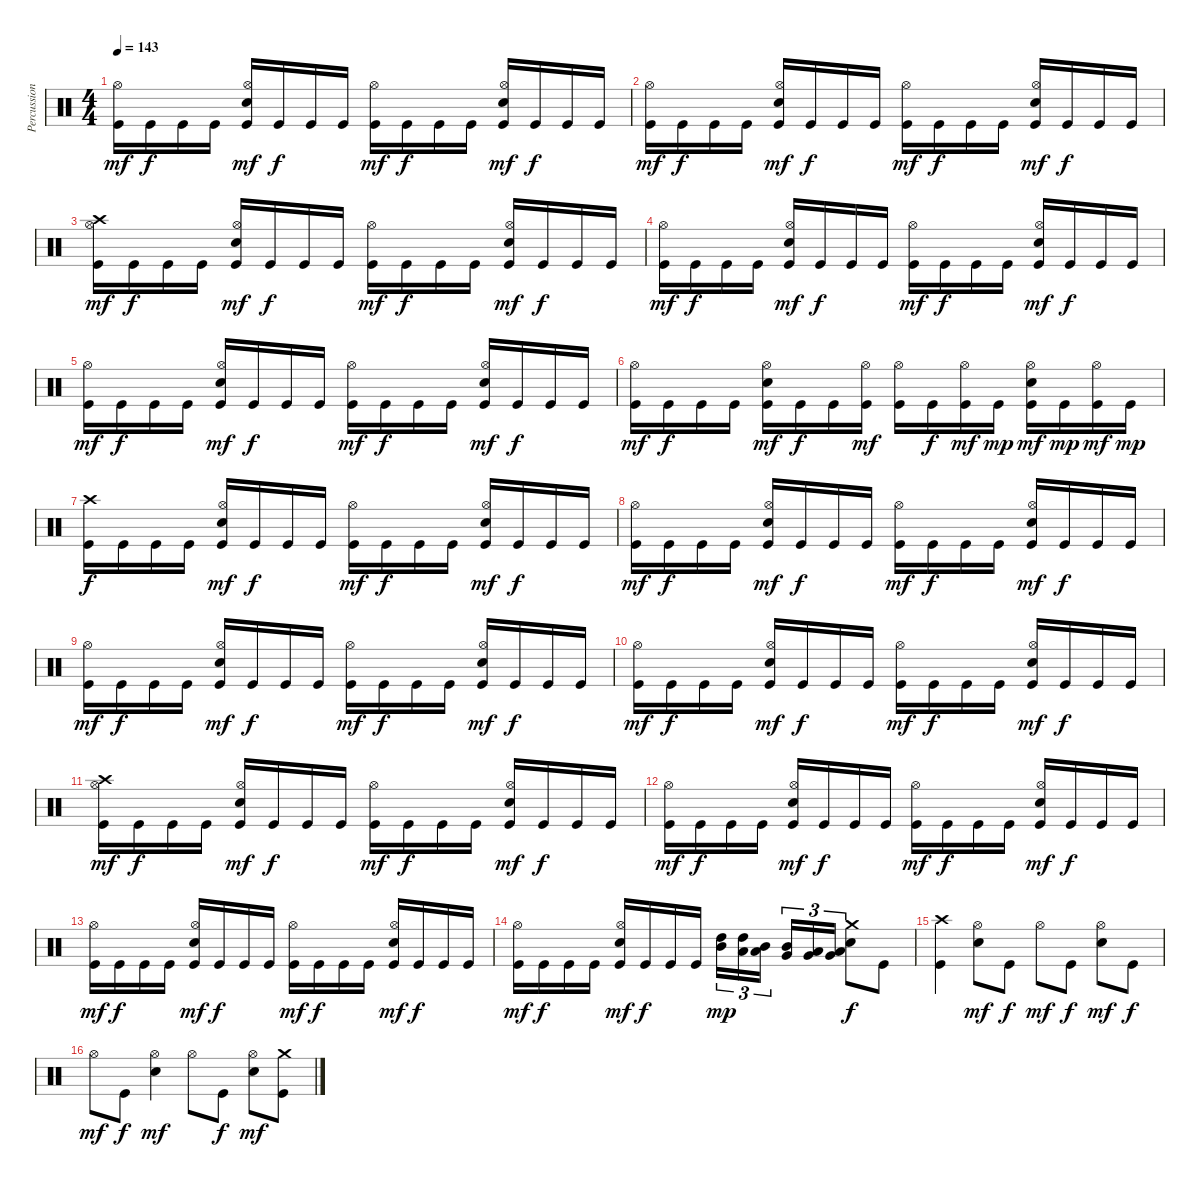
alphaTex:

\track ("Percussions" "Percussion") {instrument percussion}
\staff {score}
\articulation defaults
\ts (4 4)
\tempo 143
\clef neutral
\ks c
("Kick (hit)" "Hi-Hat (open)").16{dy mf} "Kick (hit)".16{dy f} "Kick (hit)".16 "Kick (hit)".16 ("Kick (hit)" "Electric Snare (hit)" "Hi-Hat (open)").16{dy mf} "Kick (hit)".16{dy f} "Kick (hit)".16 "Kick (hit)".16 ("Kick (hit)" "Hi-Hat (open)").16{dy mf} "Kick (hit)".16{dy f} "Kick (hit)".16 "Kick (hit)".16 ("Kick (hit)" "Electric Snare (hit)" "Hi-Hat (open)").16{dy mf} "Kick (hit)".16{dy f} "Kick (hit)".16 "Kick (hit)".16 |
("Kick (hit)" "Hi-Hat (open)").16{dy mf} "Kick (hit)".16{dy f} "Kick (hit)".16 "Kick (hit)".16 ("Kick (hit)" "Electric Snare (hit)" "Hi-Hat (open)").16{dy mf} "Kick (hit)".16{dy f} "Kick (hit)".16 "Kick (hit)".16 ("Kick (hit)" "Hi-Hat (open)").16{dy mf} "Kick (hit)".16{dy f} "Kick (hit)".16 "Kick (hit)".16 ("Kick (hit)" "Electric Snare (hit)" "Hi-Hat (open)").16{dy mf} "Kick (hit)".16{dy f} "Kick (hit)".16 "Kick (hit)".16 |
("Kick (hit)" "Hi-Hat (open)" "Crash high (hit)").16{dy mf} "Kick (hit)".16{dy f} "Kick (hit)".16 "Kick (hit)".16 ("Kick (hit)" "Electric Snare (hit)" "Hi-Hat (open)").16{dy mf} "Kick (hit)".16{dy f} "Kick (hit)".16 "Kick (hit)".16 ("Kick (hit)" "Hi-Hat (open)").16{dy mf} "Kick (hit)".16{dy f} "Kick (hit)".16 "Kick (hit)".16 ("Kick (hit)" "Electric Snare (hit)" "Hi-Hat (open)").16{dy mf} "Kick (hit)".16{dy f} "Kick (hit)".16 "Kick (hit)".16 |
("Kick (hit)" "Hi-Hat (open)").16{dy mf} "Kick (hit)".16{dy f} "Kick (hit)".16 "Kick (hit)".16 ("Kick (hit)" "Electric Snare (hit)" "Hi-Hat (open)").16{dy mf} "Kick (hit)".16{dy f} "Kick (hit)".16 "Kick (hit)".16 ("Kick (hit)" "Hi-Hat (open)").16{dy mf} "Kick (hit)".16{dy f} "Kick (hit)".16 "Kick (hit)".16 ("Kick (hit)" "Electric Snare (hit)" "Hi-Hat (open)").16{dy mf} "Kick (hit)".16{dy f} "Kick (hit)".16 "Kick (hit)".16 |
("Kick (hit)" "Hi-Hat (open)").16{dy mf} "Kick (hit)".16{dy f} "Kick (hit)".16 "Kick (hit)".16 ("Kick (hit)" "Electric Snare (hit)" "Hi-Hat (open)").16{dy mf} "Kick (hit)".16{dy f} "Kick (hit)".16 "Kick (hit)".16 ("Kick (hit)" "Hi-Hat (open)").16{dy mf} "Kick (hit)".16{dy f} "Kick (hit)".16 "Kick (hit)".16 ("Kick (hit)" "Electric Snare (hit)" "Hi-Hat (open)").16{dy mf} "Kick (hit)".16{dy f} "Kick (hit)".16 "Kick (hit)".16 |
("Kick (hit)" "Hi-Hat (open)").16{dy mf} "Kick (hit)".16{dy f} "Kick (hit)".16 "Kick (hit)".16 ("Kick (hit)" "Electric Snare (hit)" "Hi-Hat (open)").16{dy mf} "Kick (hit)".16{dy f} "Kick (hit)".16 ("Kick (hit)" "Hi-Hat (open)").16{dy mf} ("Kick (hit)" "Hi-Hat (open)").16 "Kick (hit)".16{dy f} ("Kick (hit)" "Hi-Hat (open)").16{dy mf} "Kick (hit)".16{dy mp} ("Kick (hit)" "Electric Snare (hit)" "Hi-Hat (open)").16{dy mf} "Kick (hit)".16{dy mp} ("Kick (hit)" "Hi-Hat (open)").16{dy mf} "Kick (hit)".16{dy mp} |
("Kick (hit)" "Crash high (hit)").16{dy f} "Kick (hit)".16 "Kick (hit)".16 "Kick (hit)".16 ("Kick (hit)" "Electric Snare (hit)" "Hi-Hat (open)").16{dy mf} "Kick (hit)".16{dy f} "Kick (hit)".16 "Kick (hit)".16 ("Kick (hit)" "Hi-Hat (open)").16{dy mf} "Kick (hit)".16{dy f} "Kick (hit)".16 "Kick (hit)".16 ("Kick (hit)" "Electric Snare (hit)" "Hi-Hat (open)").16{dy mf} "Kick (hit)".16{dy f} "Kick (hit)".16 "Kick (hit)".16 |
("Kick (hit)" "Hi-Hat (open)").16{dy mf} "Kick (hit)".16{dy f} "Kick (hit)".16 "Kick (hit)".16 ("Kick (hit)" "Electric Snare (hit)" "Hi-Hat (open)").16{dy mf} "Kick (hit)".16{dy f} "Kick (hit)".16 "Kick (hit)".16 ("Kick (hit)" "Hi-Hat (open)").16{dy mf} "Kick (hit)".16{dy f} "Kick (hit)".16 "Kick (hit)".16 ("Kick (hit)" "Electric Snare (hit)" "Hi-Hat (open)").16{dy mf} "Kick (hit)".16{dy f} "Kick (hit)".16 "Kick (hit)".16 |
("Kick (hit)" "Hi-Hat (open)").16{dy mf} "Kick (hit)".16{dy f} "Kick (hit)".16 "Kick (hit)".16 ("Kick (hit)" "Electric Snare (hit)" "Hi-Hat (open)").16{dy mf} "Kick (hit)".16{dy f} "Kick (hit)".16 "Kick (hit)".16 ("Kick (hit)" "Hi-Hat (open)").16{dy mf} "Kick (hit)".16{dy f} "Kick (hit)".16 "Kick (hit)".16 ("Kick (hit)" "Electric Snare (hit)" "Hi-Hat (open)").16{dy mf} "Kick (hit)".16{dy f} "Kick (hit)".16 "Kick (hit)".16 |
("Kick (hit)" "Hi-Hat (open)").16{dy mf} "Kick (hit)".16{dy f} "Kick (hit)".16 "Kick (hit)".16 ("Kick (hit)" "Electric Snare (hit)" "Hi-Hat (open)").16{dy mf} "Kick (hit)".16{dy f} "Kick (hit)".16 "Kick (hit)".16 ("Kick (hit)" "Hi-Hat (open)").16{dy mf} "Kick (hit)".16{dy f} "Kick (hit)".16 "Kick (hit)".16 ("Kick (hit)" "Electric Snare (hit)" "Hi-Hat (open)").16{dy mf} "Kick (hit)".16{dy f} "Kick (hit)".16 "Kick (hit)".16 |
("Kick (hit)" "Hi-Hat (open)" "Crash high (hit)").16{dy mf} "Kick (hit)".16{dy f} "Kick (hit)".16 "Kick (hit)".16 ("Kick (hit)" "Electric Snare (hit)" "Hi-Hat (open)").16{dy mf} "Kick (hit)".16{dy f} "Kick (hit)".16 "Kick (hit)".16 ("Kick (hit)" "Hi-Hat (open)").16{dy mf} "Kick (hit)".16{dy f} "Kick (hit)".16 "Kick (hit)".16 ("Kick (hit)" "Electric Snare (hit)" "Hi-Hat (open)").16{dy mf} "Kick (hit)".16{dy f} "Kick (hit)".16 "Kick (hit)".16 |
("Kick (hit)" "Hi-Hat (open)").16{dy mf} "Kick (hit)".16{dy f} "Kick (hit)".16 "Kick (hit)".16 ("Kick (hit)" "Electric Snare (hit)" "Hi-Hat (open)").16{dy mf} "Kick (hit)".16{dy f} "Kick (hit)".16 "Kick (hit)".16 ("Kick (hit)" "Hi-Hat (open)").16{dy mf} "Kick (hit)".16{dy f} "Kick (hit)".16 "Kick (hit)".16 ("Kick (hit)" "Electric Snare (hit)" "Hi-Hat (open)").16{dy mf} "Kick (hit)".16{dy f} "Kick (hit)".16 "Kick (hit)".16 |
("Kick (hit)" "Hi-Hat (open)").16{dy mf} "Kick (hit)".16{dy f} "Kick (hit)".16 "Kick (hit)".16 ("Kick (hit)" "Electric Snare (hit)" "Hi-Hat (open)").16{dy mf} "Kick (hit)".16{dy f} "Kick (hit)".16 "Kick (hit)".16 ("Kick (hit)" "Hi-Hat (open)").16{dy mf} "Kick (hit)".16{dy f} "Kick (hit)".16 "Kick (hit)".16 ("Kick (hit)" "Electric Snare (hit)" "Hi-Hat (open)").16{dy mf} "Kick (hit)".16{dy f} "Kick (hit)".16 "Kick (hit)".16 |
("Kick (hit)" "Hi-Hat (open)").16{dy mf} "Kick (hit)".16{dy f} "Kick (hit)".16 "Kick (hit)".16 ("Kick (hit)" "Electric Snare (hit)" "Hi-Hat (open)").16{dy mf} "Kick (hit)".16{dy f} "Kick (hit)".16 "Kick (hit)".16 ("Mid Tom (hit)" "High Tom (hit)").16{tu (3 2) dy mp} ("Low Tom (hit)" "High Tom (hit)").16{tu (3 2)} ("Low Tom (hit)" "Mid Tom (hit)").16{tu (3 2)} ("Very Low Tom (hit)" "Mid Tom (hit)").16{tu (3 2)} ("Very Low Tom (hit)" "Low Tom (hit)").16{tu (3 2)} ("Low Floor Tom (hit)" "Very Low Tom (hit)").16{tu (3 2)} ("Electric Snare (hit)" "Crash medium (hit)").8{dy f} "Kick (hit)".8 |
("Kick (hit)" "Crash high (hit)").4 ("Electric Snare (hit)" "Hi-Hat (open)").8{dy mf} "Kick (hit)".8{dy f} "Hi-Hat (open)".8{dy mf} "Kick (hit)".8{dy f} ("Electric Snare (hit)" "Hi-Hat (open)").8{dy mf} "Kick (hit)".8{dy f} |
"Hi-Hat (open)".8{dy mf} "Kick (hit)".8{dy f} ("Electric Snare (hit)" "Hi-Hat (open)").4{dy mf} "Hi-Hat (open)".8 "Kick (hit)".8{dy f} ("Electric Snare (hit)" "Hi-Hat (open)").8{dy mf} ("Kick (hit)" "Crash medium (hit)").8
